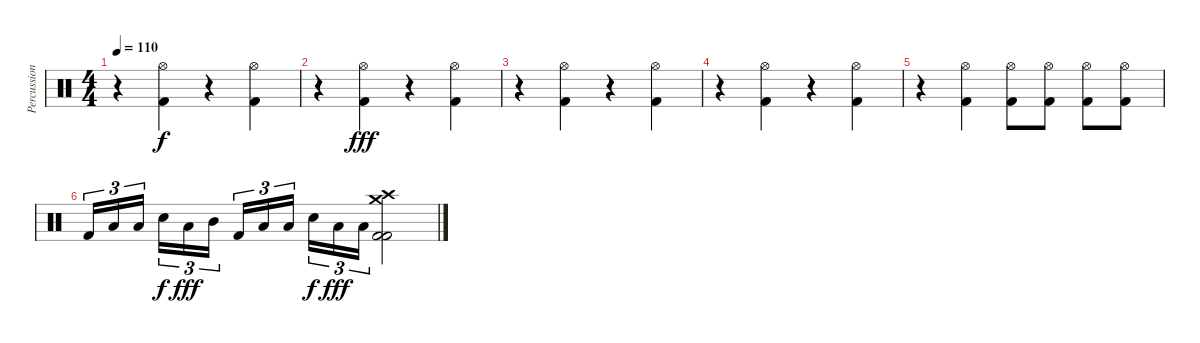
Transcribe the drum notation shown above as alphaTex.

\track ("Percussion" "Percussion") {instrument percussion}
\staff {score}
\articulation defaults
\ts (4 4)
\tempo 110
\clef neutral
\ks c
r.4{dy f} ("Hi-Hat (open)" "Kick (hit) 2").4 r.4 ("Hi-Hat (open)" "Kick (hit) 2").4 |
r.4 ("Hi-Hat (open)" "Kick (hit) 2").4{dy fff} r.4 ("Hi-Hat (open)" "Kick (hit) 2").4 |
r.4 ("Hi-Hat (open)" "Kick (hit) 2").4 r.4 ("Hi-Hat (open)" "Kick (hit) 2").4 |
r.4 ("Hi-Hat (open)" "Kick (hit) 2").4 r.4 ("Hi-Hat (open)" "Kick (hit) 2").4 |
r.4 ("Hi-Hat (open)" "Kick (hit) 2").4 ("Hi-Hat (open)" "Kick (hit) 2").8 ("Hi-Hat (open)" "Kick (hit) 2").8 ("Hi-Hat (open)" "Kick (hit) 2").8 ("Hi-Hat (open)" "Kick (hit) 2").8 |
"Kick (hit) 2".16{tu (3 2)} "Low Tom (hit)".16{tu (3 2)} "Low Tom (hit)".16{tu (3 2) beam splitsecondary} "Snare (hit) 2".16{tu (3 2) dy f} "Low Tom (hit)".16{tu (3 2) dy fff} "Mid Tom (hit)".16{tu (3 2)} "Kick (hit) 2".16{tu (3 2)} "Low Tom (hit)".16{tu (3 2)} "Low Tom (hit)".16{tu (3 2) beam splitsecondary} "Snare (hit) 2".16{tu (3 2) dy f} "Low Tom (hit)".16{tu (3 2) dy fff} "Low Tom (hit)".16{tu (3 2)} ("Crash high (hit)" "Crash medium (hit)" "Kick (hit) 2" "Kick (hit) 2").2
